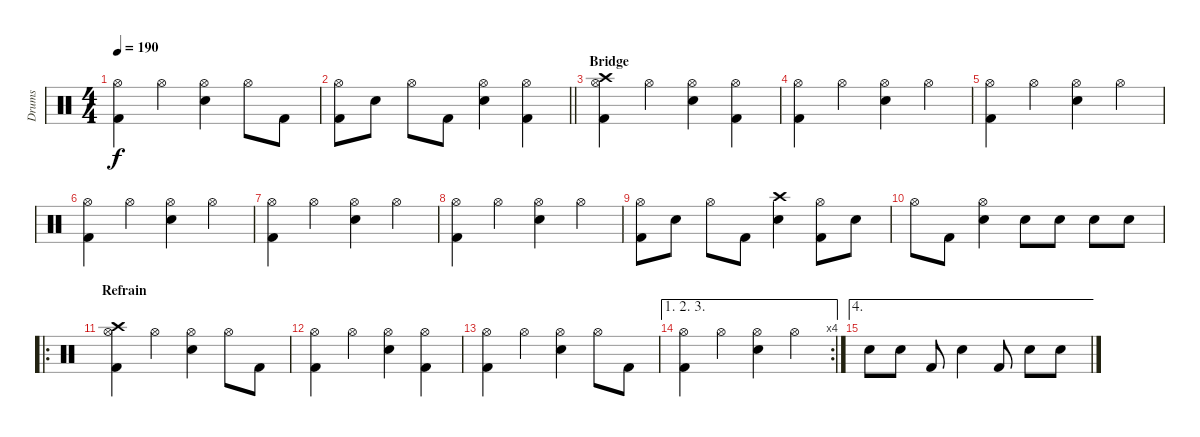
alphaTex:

\track ("Drums" "Drums") {instrument percussion}
\staff {score}
\articulation defaults
\ts (4 4)
\tempo 190
\clef neutral
\ks c
("Hi-Hat (open)" "Kick (hit) 2").4{dy f} "Hi-Hat (open)".4 ("Hi-Hat (open)" "Snare (hit) 2").4 "Hi-Hat (open)".8 "Kick (hit) 2".8 |
\barLineRight lightlight
("Hi-Hat (open)" "Kick (hit) 2").8 "Snare (hit) 2".8 "Hi-Hat (open)".8 "Kick (hit) 2".8 ("Hi-Hat (open)" "Snare (hit) 2").4 ("Hi-Hat (open)" "Kick (hit) 2").4 |
\section ("" "Bridge")
("Crash high (hit)" "Hi-Hat (open)" "Kick (hit) 2").4 "Hi-Hat (open)".4 ("Hi-Hat (open)" "Snare (hit) 2").4 ("Hi-Hat (open)" "Kick (hit) 2").4 |
("Hi-Hat (open)" "Kick (hit) 2").4 "Hi-Hat (open)".4 ("Hi-Hat (open)" "Snare (hit) 2").4 "Hi-Hat (open)".4 |
("Hi-Hat (open)" "Kick (hit) 2").4 "Hi-Hat (open)".4 ("Hi-Hat (open)" "Snare (hit) 2").4 "Hi-Hat (open)".4 |
("Hi-Hat (open)" "Kick (hit) 2").4 "Hi-Hat (open)".4 ("Hi-Hat (open)" "Snare (hit) 2").4 "Hi-Hat (open)".4 |
("Hi-Hat (open)" "Kick (hit) 2").4 "Hi-Hat (open)".4 ("Hi-Hat (open)" "Snare (hit) 2").4 "Hi-Hat (open)".4 |
("Hi-Hat (open)" "Kick (hit) 2").4 "Hi-Hat (open)".4 ("Hi-Hat (open)" "Snare (hit) 2").4 "Hi-Hat (open)".4 |
("Hi-Hat (open)" "Kick (hit) 2").8 "Snare (hit) 2".8 "Hi-Hat (open)".8 "Kick (hit) 2".8 ("Crash high (hit)" "Snare (hit) 2").4 ("Hi-Hat (open)" "Kick (hit) 2").8 "Snare (hit) 2".8 |
"Hi-Hat (open)".8 "Kick (hit) 2".8 ("Hi-Hat (open)" "Snare (hit) 2").4 "Snare (hit) 2".8 "Snare (hit) 2".8 "Snare (hit) 2".8 "Snare (hit) 2".8 |
\ro
\section ("" "Refrain")
("Crash high (hit)" "Hi-Hat (open)" "Kick (hit) 2").4 "Hi-Hat (open)".4 ("Hi-Hat (open)" "Snare (hit) 2").4 "Hi-Hat (open)".8 "Kick (hit) 2".8 |
("Hi-Hat (open)" "Kick (hit) 2").4 "Hi-Hat (open)".4 ("Hi-Hat (open)" "Snare (hit) 2").4 ("Hi-Hat (open)" "Kick (hit) 2").4 |
("Hi-Hat (open)" "Kick (hit) 2").4 "Hi-Hat (open)".4 ("Hi-Hat (open)" "Snare (hit) 2").4 "Hi-Hat (open)".8 "Kick (hit) 2".8 |
\ae (1 2 3)
\rc 4
("Hi-Hat (open)" "Kick (hit) 2").4 "Hi-Hat (open)".4 ("Hi-Hat (open)" "Snare (hit) 2").4 "Hi-Hat (open)".4 |
\ae 4 "Snare (hit) 2".8 "Snare (hit) 2".8 "Kick (hit) 2".8 "Snare (hit) 2".4 "Kick (hit) 2".8 "Snare (hit) 2".8 "Snare (hit) 2".8
